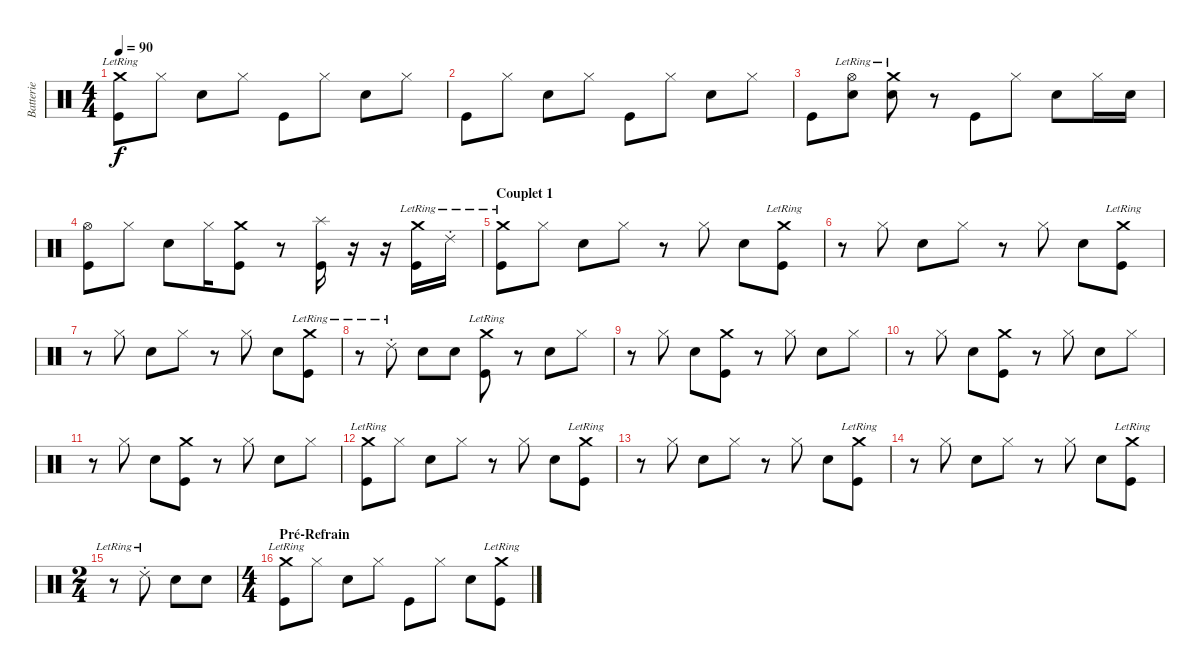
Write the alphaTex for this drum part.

\track ("Batterie" "Batterie") {instrument percussion}
\staff {score}
\articulation defaults
\ts (4 4)
\tempo 90
\clef neutral
\ks c
("Crash medium (hit)"{lr} "Kick (hit)").8{dy f} "Hi-Hat (closed)".8 "Electric Snare (hit)".8 "Hi-Hat (closed)".8 "Kick (hit)".8 "Hi-Hat (closed)".8 "Electric Snare (hit)".8 "Hi-Hat (closed)".8 |
"Kick (hit)".8 "Hi-Hat (closed)".8 "Electric Snare (hit)".8 "Hi-Hat (closed)".8 "Kick (hit)".8 "Hi-Hat (closed)".8 "Electric Snare (hit)".8 "Hi-Hat (closed)".8 |
"Kick (hit)".8 ("Electric Snare (hit)" "Hi-Hat (open)"{lr}).8 ("Electric Snare (hit)" "Crash medium (hit)"{lr}).8 r.8 "Kick (hit)".8 "Hi-Hat (closed)".8 "Electric Snare (hit)".8 "Hi-Hat (closed)".16 "Electric Snare (hit)".16 |
("Hi-Hat (open)" "Kick (hit)").8 "Hi-Hat (closed)".8 "Electric Snare (hit)".8 "Hi-Hat (closed)".16 ("Crash medium (hit)" "Kick (hit)").8 r.8 ("Splash (hit)" "Kick (hit)").16 r.16 r.16 ("Crash medium (hit)"{lr} "Kick (hit)").16 "Ride (choke) 2"{lr}.16 |
\section ("" "Couplet 1")
("Crash medium (hit)"{lr} "Kick (hit)").8 "Hi-Hat (closed)".8 "Electric Snare (hit)".8 "Hi-Hat (closed)".8 r.8 "Hi-Hat (closed)".8 "Electric Snare (hit)".8 ("Crash medium (hit)"{lr} "Kick (hit)").8 |
r.8 "Hi-Hat (closed)".8 "Electric Snare (hit)".8 "Hi-Hat (closed)".8 r.8 "Hi-Hat (closed)".8 "Electric Snare (hit)".8 ("Crash medium (hit)"{lr} "Kick (hit)").8 |
r.8 "Hi-Hat (closed)".8 "Electric Snare (hit)".8 "Hi-Hat (closed)".8 r.8 "Hi-Hat (closed)".8 "Electric Snare (hit)".8 ("Crash medium (hit)"{lr} "Kick (hit)").8 |
r.8 "Ride (choke) 2"{lr}.8 "Electric Snare (hit)".8 "Electric Snare (hit)".8 ("Crash medium (hit)"{lr} "Kick (hit)").8 r.8 "Electric Snare (hit)".8 "Hi-Hat (closed)".8 |
r.8 "Hi-Hat (closed)".8 "Electric Snare (hit)".8 ("Crash medium (hit)" "Kick (hit)").8 r.8 "Hi-Hat (closed)".8 "Electric Snare (hit)".8 "Hi-Hat (closed)".8 |
r.8 "Hi-Hat (closed)".8 "Electric Snare (hit)".8 ("Crash medium (hit)" "Kick (hit)").8 r.8 "Hi-Hat (closed)".8 "Electric Snare (hit)".8 "Hi-Hat (closed)".8 |
r.8 "Hi-Hat (closed)".8 "Electric Snare (hit)".8 ("Crash medium (hit)" "Kick (hit)").8 r.8 "Hi-Hat (closed)".8 "Electric Snare (hit)".8 "Hi-Hat (closed)".8 |
("Crash medium (hit)"{lr} "Kick (hit)").8 "Hi-Hat (closed)".8 "Electric Snare (hit)".8 "Hi-Hat (closed)".8 r.8 "Hi-Hat (closed)".8 "Electric Snare (hit)".8 ("Crash medium (hit)"{lr} "Kick (hit)").8 |
r.8 "Hi-Hat (closed)".8 "Electric Snare (hit)".8 "Hi-Hat (closed)".8 r.8 "Hi-Hat (closed)".8 "Electric Snare (hit)".8 ("Crash medium (hit)"{lr} "Kick (hit)").8 |
r.8 "Hi-Hat (closed)".8 "Electric Snare (hit)".8 "Hi-Hat (closed)".8 r.8 "Hi-Hat (closed)".8 "Electric Snare (hit)".8 ("Crash medium (hit)"{lr} "Kick (hit)").8 |
\ts (2 4)
r.8 "Ride (choke) 2"{lr}.8 "Electric Snare (hit)".8 "Electric Snare (hit)".8 |
\ts (4 4)
\section ("" "Pré-Refrain")
("Crash medium (hit)"{lr} "Kick (hit)").8 "Hi-Hat (closed)".8 "Electric Snare (hit)".8 "Hi-Hat (closed)".8 "Kick (hit)".8 "Hi-Hat (closed)".8 "Electric Snare (hit)".8 ("Crash medium (hit)"{lr} "Kick (hit)").8
